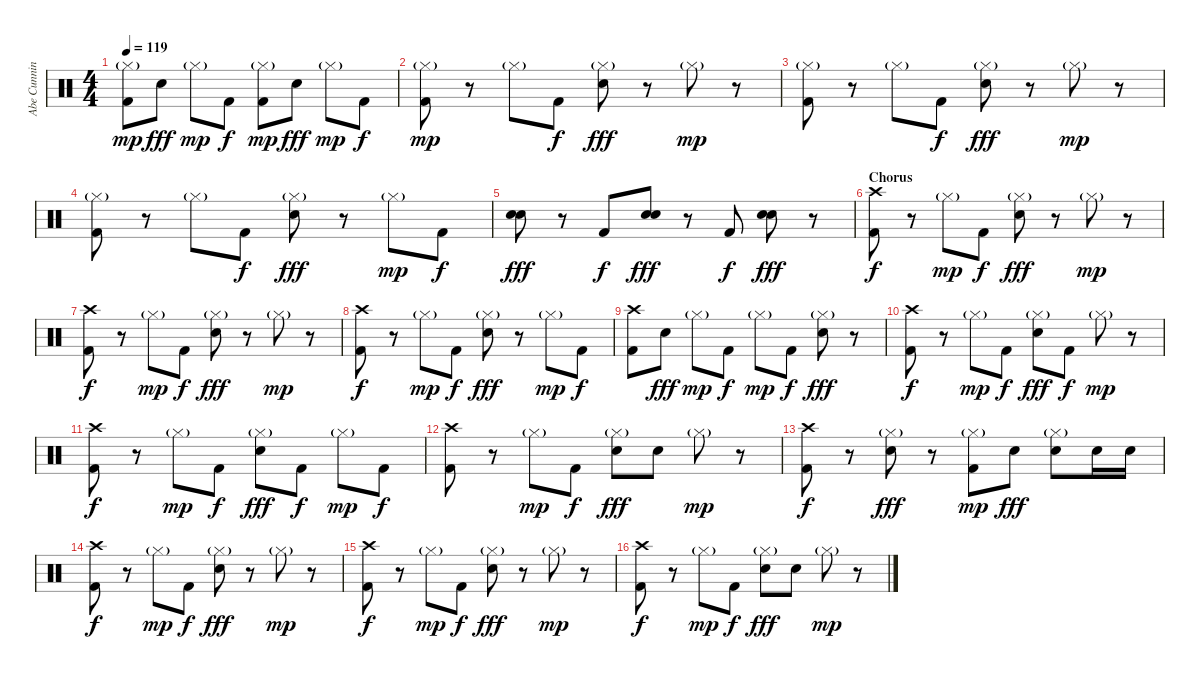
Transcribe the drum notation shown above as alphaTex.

\track ("Abe Cunningham" "Abe Cunnin") {instrument percussion}
\staff {score}
\articulation defaults
\ts (4 4)
\tempo 119
\clef neutral
\ks c
("Hi-Hat (closed)"{g} "Kick (hit) 2").8{dy mp} "Snare (hit) 2".8{dy fff} "Hi-Hat (closed)"{g}.8{dy mp} "Kick (hit) 2".8{dy f} ("Hi-Hat (closed)"{g} "Kick (hit) 2").8{dy mp} "Snare (hit) 2".8{dy fff} "Hi-Hat (closed)"{g}.8{dy mp} "Kick (hit) 2".8{dy f} |
("Hi-Hat (closed)"{g} "Kick (hit) 2").8{dy mp} r.8 "Hi-Hat (closed)"{g}.8 "Kick (hit) 2".8{dy f} ("Hi-Hat (closed)"{g} "Snare (hit) 2").8{dy fff} r.8 "Hi-Hat (closed)"{g}.8{dy mp} r.8 |
("Hi-Hat (closed)"{g} "Kick (hit) 2").8 r.8 "Hi-Hat (closed)"{g}.8 "Kick (hit) 2".8{dy f} ("Hi-Hat (closed)"{g} "Snare (hit) 2").8{dy fff} r.8 "Hi-Hat (closed)"{g}.8{dy mp} r.8 |
("Hi-Hat (closed)"{g} "Kick (hit) 2").8 r.8 "Hi-Hat (closed)"{g}.8 "Kick (hit) 2".8{dy f} ("Hi-Hat (closed)"{g} "Snare (hit) 2").8{dy fff} r.8 "Hi-Hat (closed)"{g}.8{dy mp} "Kick (hit) 2".8{dy f volume 16} |
("Electric Snare (hit)" "Snare (hit) 2").8{dy fff} r.8 "Kick (hit) 2".8{dy f} ("Electric Snare (hit)" "Snare (hit) 2").8{dy fff} r.8 "Kick (hit) 2".8{dy f} ("Electric Snare (hit)" "Snare (hit) 2").8{dy fff} r.8 |
\section ("" "Chorus")
("Crash high (hit)" "Kick (hit) 2").8{dy f volume 13} r.8 "Hi-Hat (closed)"{g}.8{dy mp} "Kick (hit) 2".8{dy f} ("Hi-Hat (closed)"{g} "Snare (hit) 2").8{dy fff} r.8 "Hi-Hat (closed)"{g}.8{dy mp} r.8 |
("Crash high (hit)" "Kick (hit) 2").8{dy f} r.8 "Hi-Hat (closed)"{g}.8{dy mp} "Kick (hit) 2".8{dy f} ("Hi-Hat (closed)"{g} "Snare (hit) 2").8{dy fff} r.8 "Hi-Hat (closed)"{g}.8{dy mp} r.8 |
("Crash high (hit)" "Kick (hit) 2").8{dy f} r.8 "Hi-Hat (closed)"{g}.8{dy mp} "Kick (hit) 2".8{dy f} ("Hi-Hat (closed)"{g} "Snare (hit) 2").8{dy fff} r.8 "Hi-Hat (closed)"{g}.8{dy mp} "Kick (hit) 2".8{dy f} |
("Crash high (hit)" "Kick (hit) 2").8 "Snare (hit) 2".8{dy fff} "Hi-Hat (closed)"{g}.8{dy mp} "Kick (hit) 2".8{dy f} "Hi-Hat (closed)"{g}.8{dy mp} "Kick (hit) 2".8{dy f} ("Hi-Hat (closed)"{g} "Snare (hit) 2").8{dy fff} r.8 |
("Crash high (hit)" "Kick (hit) 2").8{dy f} r.8 "Hi-Hat (closed)"{g}.8{dy mp} "Kick (hit) 2".8{dy f} ("Hi-Hat (closed)"{g} "Snare (hit) 2").8{dy fff} "Kick (hit) 2".8{dy f} "Hi-Hat (closed)"{g}.8{dy mp} r.8 |
("Crash high (hit)" "Kick (hit) 2").8{dy f} r.8 "Hi-Hat (closed)"{g}.8{dy mp} "Kick (hit) 2".8{dy f} ("Hi-Hat (closed)"{g} "Snare (hit) 2").8{dy fff} "Kick (hit) 2".8{dy f} "Hi-Hat (closed)"{g}.8{dy mp} "Kick (hit) 2".8{dy f} |
("Crash high (hit)" "Kick (hit) 2").8 r.8 "Hi-Hat (closed)"{g}.8{dy mp} "Kick (hit) 2".8{dy f} ("Hi-Hat (closed)"{g} "Snare (hit) 2").8{dy fff} "Snare (hit) 2".8 "Hi-Hat (closed)"{g}.8{dy mp} r.8 |
("Crash high (hit)" "Kick (hit) 2").8{dy f} r.8 ("Hi-Hat (closed)"{g} "Snare (hit) 2").8{dy fff} r.8 ("Hi-Hat (closed)"{g} "Kick (hit) 2").8{dy mp} "Snare (hit) 2".8{dy fff} ("Hi-Hat (closed)"{g} "Snare (hit) 2").8 "Snare (hit) 2".16 "Snare (hit) 2".16 |
("Crash high (hit)" "Kick (hit) 2").8{dy f} r.8 "Hi-Hat (closed)"{g}.8{dy mp} "Kick (hit) 2".8{dy f} ("Hi-Hat (closed)"{g} "Snare (hit) 2").8{dy fff} r.8 "Hi-Hat (closed)"{g}.8{dy mp} r.8 |
("Crash high (hit)" "Kick (hit) 2").8{dy f} r.8 "Hi-Hat (closed)"{g}.8{dy mp} "Kick (hit) 2".8{dy f} ("Hi-Hat (closed)"{g} "Snare (hit) 2").8{dy fff} r.8 "Hi-Hat (closed)"{g}.8{dy mp} r.8 |
("Crash high (hit)" "Kick (hit) 2").8{dy f} r.8 "Hi-Hat (closed)"{g}.8{dy mp} "Kick (hit) 2".8{dy f} ("Hi-Hat (closed)"{g} "Snare (hit) 2").8{dy fff} "Snare (hit) 2".8 "Hi-Hat (closed)"{g}.8{dy mp} r.8
